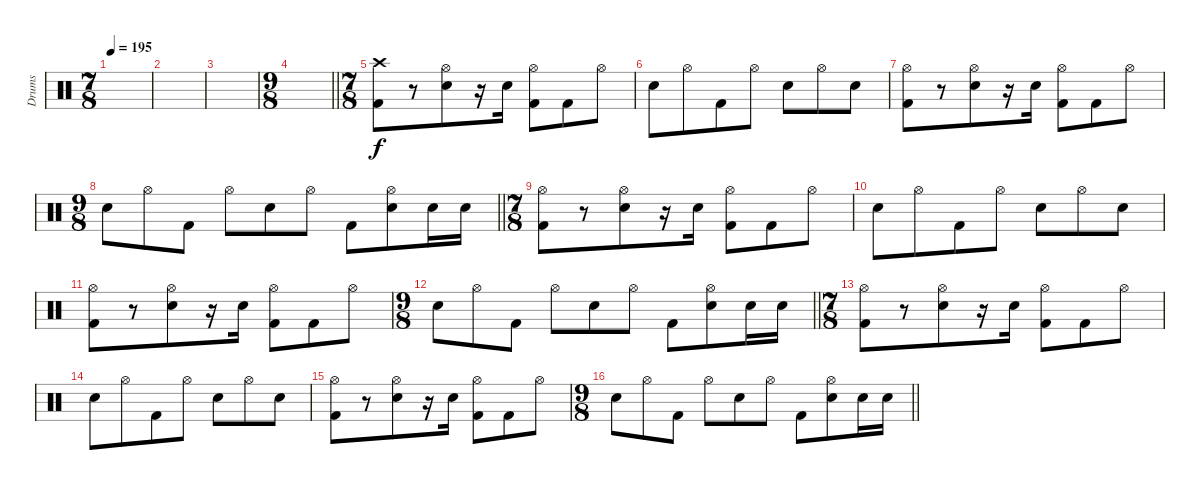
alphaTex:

\track ("Drums" "Drums") {instrument percussion}
\staff {score}
\articulation defaults
\ts (7 8)
\tempo 195
\clef neutral
\ks c
|
|
|
\ts (9 8)
\barLineRight lightlight
|
\ts (7 8)
("Crash high (hit)" "Kick (hit) 2").8 r.8 ("Hi-Hat (open)" "Electric Snare (hit)").8 r.16 "Electric Snare (hit)".16 ("Hi-Hat (open)" "Kick (hit) 2").8 "Kick (hit) 2".8 "Hi-Hat (open)".8 |
"Electric Snare (hit)".8 "Hi-Hat (open)".8 "Kick (hit) 2".8 "Hi-Hat (open)".8 "Electric Snare (hit)".8 "Hi-Hat (open)".8 "Electric Snare (hit)".8 |
("Hi-Hat (open)" "Kick (hit) 2").8 r.8 ("Hi-Hat (open)" "Electric Snare (hit)").8 r.16 "Electric Snare (hit)".16 ("Hi-Hat (open)" "Kick (hit) 2").8 "Kick (hit) 2".8 "Hi-Hat (open)".8 |
\ts (9 8)
\barLineRight lightlight "Electric Snare (hit)".8 "Hi-Hat (open)".8 "Kick (hit) 2".8 "Hi-Hat (open)".8 "Electric Snare (hit)".8 "Hi-Hat (open)".8 "Kick (hit) 2".8
("Hi-Hat (open)" "Electric Snare (hit)").8 "Electric Snare (hit)".16 "Electric Snare (hit)".16 |
\ts (7 8)
("Hi-Hat (open)" "Kick (hit) 2").8 r.8 ("Hi-Hat (open)" "Electric Snare (hit)").8 r.16 "Electric Snare (hit)".16 ("Hi-Hat (open)" "Kick (hit) 2").8 "Kick (hit) 2".8 "Hi-Hat (open)".8 |
"Electric Snare (hit)".8 "Hi-Hat (open)".8 "Kick (hit) 2".8 "Hi-Hat (open)".8 "Electric Snare (hit)".8 "Hi-Hat (open)".8 "Electric Snare (hit)".8 |
("Hi-Hat (open)" "Kick (hit) 2").8 r.8 ("Hi-Hat (open)" "Electric Snare (hit)").8 r.16 "Electric Snare (hit)".16 ("Hi-Hat (open)" "Kick (hit) 2").8 "Kick (hit) 2".8 "Hi-Hat (open)".8 |
\ts (9 8)
\barLineRight lightlight "Electric Snare (hit)".8 "Hi-Hat (open)".8 "Kick (hit) 2".8 "Hi-Hat (open)".8 "Electric Snare (hit)".8 "Hi-Hat (open)".8 "Kick (hit) 2".8
("Hi-Hat (open)" "Electric Snare (hit)").8 "Electric Snare (hit)".16 "Electric Snare (hit)".16 |
\ts (7 8)
("Hi-Hat (open)" "Kick (hit) 2").8 r.8 ("Hi-Hat (open)" "Electric Snare (hit)").8 r.16 "Electric Snare (hit)".16 ("Hi-Hat (open)" "Kick (hit) 2").8 "Kick (hit) 2".8 "Hi-Hat (open)".8 |
"Electric Snare (hit)".8 "Hi-Hat (open)".8 "Kick (hit) 2".8 "Hi-Hat (open)".8 "Electric Snare (hit)".8 "Hi-Hat (open)".8 "Electric Snare (hit)".8 |
("Hi-Hat (open)" "Kick (hit) 2").8 r.8 ("Hi-Hat (open)" "Electric Snare (hit)").8 r.16 "Electric Snare (hit)".16 ("Hi-Hat (open)" "Kick (hit) 2").8 "Kick (hit) 2".8 "Hi-Hat (open)".8 |
\ts (9 8)
\barLineRight lightlight "Electric Snare (hit)".8 "Hi-Hat (open)".8 "Kick (hit) 2".8 "Hi-Hat (open)".8 "Electric Snare (hit)".8 "Hi-Hat (open)".8 "Kick (hit) 2".8
("Hi-Hat (open)" "Electric Snare (hit)").8 "Electric Snare (hit)".16 "Electric Snare (hit)".16
